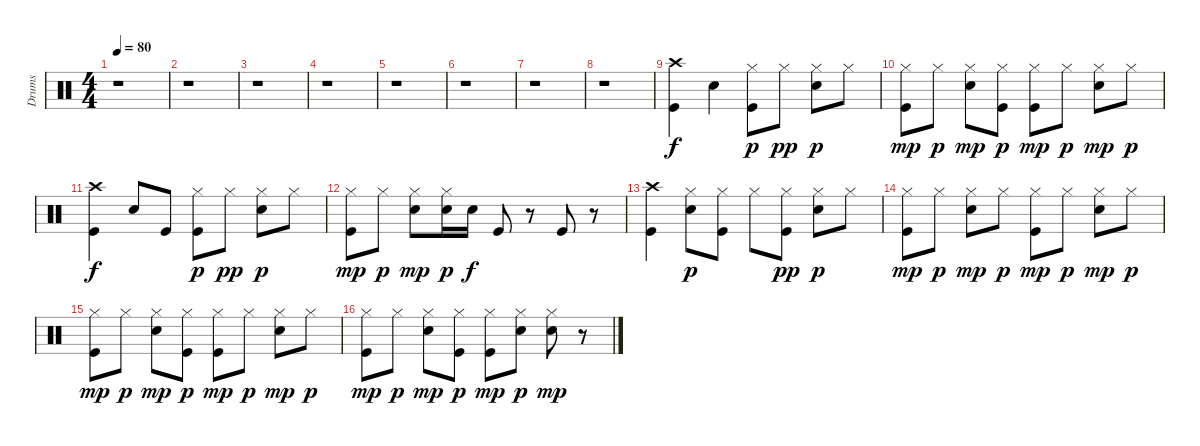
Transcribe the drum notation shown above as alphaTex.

\track ("Drums" "Drums") {instrument percussion}
\staff {score}
\articulation defaults
\ts (4 4)
\tempo 80
\clef neutral
\ks c
r.1{dy f} |
r.1 |
r.1 |
r.1 |
r.1 |
r.1 |
r.1 |
r.1 |
("Crash high (hit)" "Kick (hit)").4 "Snare (hit) 2".4 ("Kick (hit)" "Hi-Hat (closed)").8{dy p} "Hi-Hat (closed)".8{dy pp} ("Hi-Hat (closed)" "Snare (hit) 2").8{dy p} "Hi-Hat (closed)".8 |
("Kick (hit)" "Hi-Hat (closed)").8{dy mp} "Hi-Hat (closed)".8{dy p} ("Hi-Hat (closed)" "Snare (hit) 2").8{dy mp} ("Kick (hit)" "Hi-Hat (closed)").8{dy p} ("Hi-Hat (closed)" "Kick (hit)").8{dy mp} "Hi-Hat (closed)".8{dy p} ("Snare (hit) 2" "Hi-Hat (closed)").8{dy mp} "Hi-Hat (closed)".8{dy p} |
("Kick (hit)" "Crash high (hit)").4{dy f} "Snare (hit) 2".8 "Kick (hit)".8 ("Kick (hit)" "Hi-Hat (closed)").8{dy p} "Hi-Hat (closed)".8{dy pp} ("Hi-Hat (closed)" "Snare (hit) 2").8{dy p} "Hi-Hat (closed)".8 |
("Kick (hit)" "Hi-Hat (closed)").8{dy mp} "Hi-Hat (closed)".8{dy p} ("Snare (hit) 2" "Hi-Hat (closed)").8{dy mp} ("Snare (hit) 2" "Hi-Hat (closed)").16{dy p} "Snare (hit) 2".16{dy f} "Kick (hit)".8 r.8 "Kick (hit)".8 r.8 |
("Kick (hit)" "Crash high (hit)").4 ("Snare (hit) 2" "Hi-Hat (closed)").8{dy p} ("Kick (hit)" "Hi-Hat (closed)").8 "Hi-Hat (closed)".8 ("Kick (hit)" "Hi-Hat (closed)").8{dy pp} ("Snare (hit) 2" "Hi-Hat (closed)").8{dy p} "Hi-Hat (closed)".8 |
("Kick (hit)" "Hi-Hat (closed)").8{dy mp} "Hi-Hat (closed)".8{dy p} ("Snare (hit) 2" "Hi-Hat (closed)").8{dy mp} "Hi-Hat (closed)".8{dy p} ("Kick (hit)" "Hi-Hat (closed)").8{dy mp} "Hi-Hat (closed)".8{dy p} ("Snare (hit) 2" "Hi-Hat (closed)").8{dy mp} "Hi-Hat (closed)".8{dy p} |
("Kick (hit)" "Hi-Hat (closed)").8{dy mp} "Hi-Hat (closed)".8{dy p} ("Snare (hit) 2" "Hi-Hat (closed)").8{dy mp} ("Kick (hit)" "Hi-Hat (closed)").8{dy p} ("Kick (hit)" "Hi-Hat (closed)").8{dy mp} "Hi-Hat (closed)".8{dy p} ("Snare (hit) 2" "Hi-Hat (closed)").8{dy mp} "Hi-Hat (closed)".8{dy p} |
("Kick (hit)" "Hi-Hat (closed)").8{dy mp} "Hi-Hat (closed)".8{dy p} ("Snare (hit) 2" "Hi-Hat (closed)").8{dy mp} ("Kick (hit)" "Hi-Hat (closed)").8{dy p} ("Kick (hit)" "Hi-Hat (closed)").8{dy mp} ("Snare (hit) 2" "Hi-Hat (closed)").8{dy p} ("Snare (hit) 2" "Hi-Hat (closed)").8{dy mp} r.8
